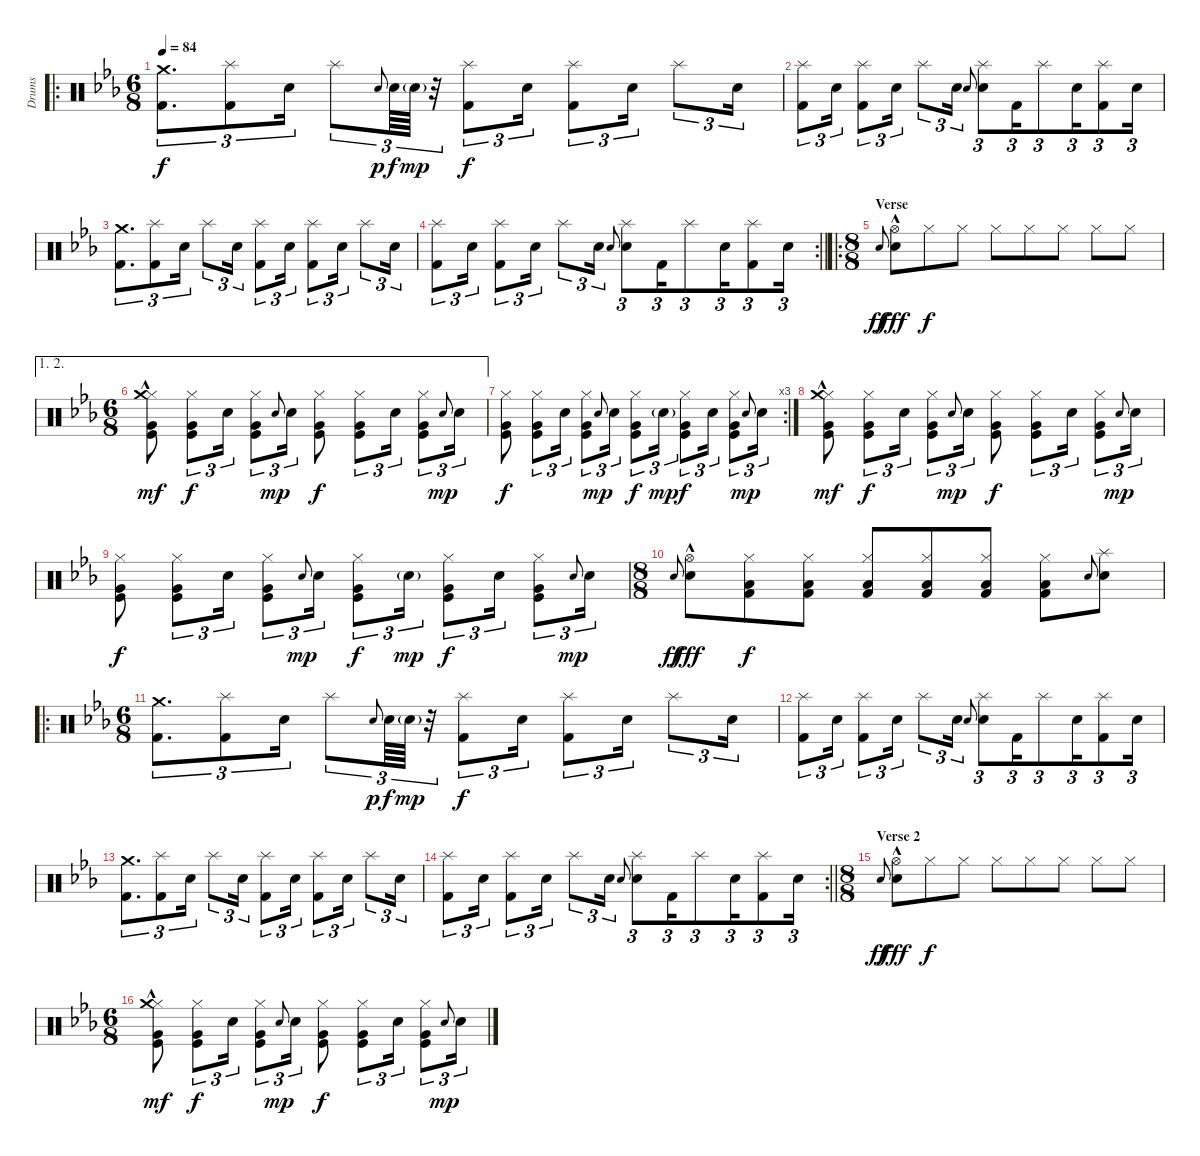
\track ("Drums" "Drums") {instrument percussion}
\staff {score}
\articulation defaults
\ro
\ts (6 8)
\tempo 84
\clef neutral
\ks cminor
("Crash medium (hit)" "Kick (hit) 2").8{d tu (3 2) dy f} ("Splash (hit)" "Kick (hit) 2").8{tu (3 2)} "Snare (hit) 2".16{tu (3 2)} "Splash (hit)".8{tu (3 2)} "Electric Snare (hit)".8{gr onbeat dy p} "Electric Snare (hit)".64{tu (3 2) dy f} "Electric Snare (hit)"{g}.64{tu (3 2) dy mp} r.32{tu (3 2)} ("Splash (hit)" "Kick (hit) 2").8{tu (3 2) dy f} "Snare (hit) 2".16{tu (3 2)} ("Splash (hit)" "Kick (hit) 2").8{tu (3 2)} "Snare (hit) 2".16{tu (3 2)} "Splash (hit)".8{tu (3 2)} "Snare (hit) 2".16{tu (3 2)} |
("Splash (hit)" "Kick (hit) 2").8{tu (3 2)} "Snare (hit) 2".16{tu (3 2)} ("Splash (hit)" "Kick (hit) 2").8{tu (3 2)} "Snare (hit) 2".16{tu (3 2)} "Splash (hit)".8{tu (3 2)} "Snare (hit) 2".16{tu (3 2)} "Snare (hit) 2"{h}.8{gr onbeat} ("Splash (hit)" "Snare (hit) 2").8{tu (3 2)} "Kick (hit) 2".16{tu (3 2)} "Splash (hit)".8{tu (3 2)} "Snare (hit) 2".16{tu (3 2)} ("Splash (hit)" "Kick (hit) 2").8{tu (3 2)} "Snare (hit) 2".16{tu (3 2)} |
("Crash medium (hit)" "Kick (hit) 2").8{d tu (3 2)} ("Splash (hit)" "Kick (hit) 2").8{tu (3 2)} "Snare (hit) 2".16{tu (3 2)} "Splash (hit)".8{tu (3 2)} "Snare (hit) 2".16{tu (3 2)} ("Splash (hit)" "Kick (hit) 2").8{tu (3 2)} "Snare (hit) 2".16{tu (3 2)} ("Splash (hit)" "Kick (hit) 2").8{tu (3 2)} "Snare (hit) 2".16{tu (3 2)} "Splash (hit)".8{tu (3 2)} "Snare (hit) 2".16{tu (3 2)} |
\rc 2
\barLineRight lightlight
("Splash (hit)" "Kick (hit) 2").8{tu (3 2)} "Snare (hit) 2".16{tu (3 2)} ("Splash (hit)" "Kick (hit) 2").8{tu (3 2)} "Snare (hit) 2".16{tu (3 2)} "Splash (hit)".8{tu (3 2)} "Snare (hit) 2".16{tu (3 2)} "Snare (hit) 2"{h}.8{gr onbeat} ("Splash (hit)" "Snare (hit) 2").8{tu (3 2)} "Kick (hit) 2".16{tu (3 2)} "Splash (hit)".8{tu (3 2)} "Snare (hit) 2".16{tu (3 2)} ("Splash (hit)" "Kick (hit) 2").8{tu (3 2)} "Snare (hit) 2".16{tu (3 2)} |
\ro
\ts (8 8)
\section ("" "Verse")
"Snare (hit) 2".8{gr onbeat dy ff} ("Hi-Hat (open)" "Snare (hit) 2"{hac}).8{dy fff} "Hi-Hat (closed)".8{dy f} "Hi-Hat (closed)".8 "Hi-Hat (closed)".8 "Hi-Hat (closed)".8 "Hi-Hat (closed)".8 "Hi-Hat (closed)".8 "Hi-Hat (closed)".8 |
\ae (1 2)
\ts (6 8)
("Hi-Hat (closed)"{hac} "Crash medium (hit)" "Very Low Tom (hit)" "Kick (hit)").8{dy mf} ("Hi-Hat (closed)" "Very Low Tom (hit)" "Kick (hit)").8{tu (3 2) dy f} "Electric Snare (hit)".16{tu (3 2)} ("Hi-Hat (closed)" "Very Low Tom (hit)" "Kick (hit)").8{tu (3 2)} "Electric Snare (hit)".8{gr onbeat dy mp} "Electric Snare (hit)".16{tu (3 2)} ("Hi-Hat (closed)" "Very Low Tom (hit)" "Kick (hit)").8{dy f} ("Hi-Hat (closed)" "Very Low Tom (hit)" "Kick (hit)").8{tu (3 2)} "Electric Snare (hit)".16{tu (3 2)} ("Hi-Hat (closed)" "Very Low Tom (hit)" "Kick (hit)").8{tu (3 2)} "Electric Snare (hit)".8{gr onbeat dy mp} "Electric Snare (hit)".16{tu (3 2)} |
\rc 3
("Hi-Hat (closed)" "Very Low Tom (hit)" "Kick (hit)").8{dy f} ("Hi-Hat (closed)" "Very Low Tom (hit)" "Kick (hit)").8{tu (3 2)} "Electric Snare (hit)".16{tu (3 2)} ("Hi-Hat (closed)" "Very Low Tom (hit)" "Kick (hit)").8{tu (3 2)} "Electric Snare (hit)".8{gr onbeat dy mp} "Electric Snare (hit)".16{tu (3 2)} ("Hi-Hat (closed)" "Very Low Tom (hit)" "Kick (hit)").8{tu (3 2) dy f} "Electric Snare (hit)"{g}.16{tu (3 2) dy mp} ("Hi-Hat (closed)" "Very Low Tom (hit)" "Kick (hit)").8{tu (3 2) dy f} "Electric Snare (hit)".16{tu (3 2)} ("Hi-Hat (closed)" "Very Low Tom (hit)" "Kick (hit)").8{tu (3 2)} "Electric Snare (hit)".8{gr onbeat dy mp} "Electric Snare (hit)".16{tu (3 2)} |
("Hi-Hat (closed)"{hac} "Crash medium (hit)" "Very Low Tom (hit)" "Kick (hit)").8{dy mf} ("Hi-Hat (closed)" "Very Low Tom (hit)" "Kick (hit)").8{tu (3 2) dy f} "Electric Snare (hit)".16{tu (3 2)} ("Hi-Hat (closed)" "Very Low Tom (hit)" "Kick (hit)").8{tu (3 2)} "Electric Snare (hit)".8{gr onbeat dy mp} "Electric Snare (hit)".16{tu (3 2)} ("Hi-Hat (closed)" "Very Low Tom (hit)" "Kick (hit)").8{dy f} ("Hi-Hat (closed)" "Very Low Tom (hit)" "Kick (hit)").8{tu (3 2)} "Electric Snare (hit)".16{tu (3 2)} ("Hi-Hat (closed)" "Very Low Tom (hit)" "Kick (hit)").8{tu (3 2)} "Electric Snare (hit)".8{gr onbeat dy mp} "Electric Snare (hit)".16{tu (3 2)} |
("Hi-Hat (closed)" "Very Low Tom (hit)" "Kick (hit)").8{dy f} ("Hi-Hat (closed)" "Very Low Tom (hit)" "Kick (hit)").8{tu (3 2)} "Electric Snare (hit)".16{tu (3 2)} ("Hi-Hat (closed)" "Very Low Tom (hit)" "Kick (hit)").8{tu (3 2)} "Electric Snare (hit)".8{gr onbeat dy mp} "Electric Snare (hit)".16{tu (3 2)} ("Hi-Hat (closed)" "Very Low Tom (hit)" "Kick (hit)").8{tu (3 2) dy f} "Electric Snare (hit)"{g}.16{tu (3 2) dy mp} ("Hi-Hat (closed)" "Very Low Tom (hit)" "Kick (hit)").8{tu (3 2) dy f} "Electric Snare (hit)".16{tu (3 2)} ("Hi-Hat (closed)" "Very Low Tom (hit)" "Kick (hit)").8{tu (3 2)} "Electric Snare (hit)".8{gr onbeat dy mp} "Electric Snare (hit)".16{tu (3 2)} |
\ts (8 8)
"Snare (hit) 2".8{gr onbeat dy ff} ("Hi-Hat (open)" "Snare (hit) 2"{hac}).8{dy fff} ("Hi-Hat (closed)" "Low Floor Tom (hit)" "Kick (hit) 2").8{dy f} ("Hi-Hat (closed)" "Low Floor Tom (hit)" "Kick (hit) 2").8 ("Hi-Hat (closed)" "Low Floor Tom (hit)" "Kick (hit) 2").8 ("Hi-Hat (closed)" "Low Floor Tom (hit)" "Kick (hit) 2").8 ("Hi-Hat (closed)" "Low Floor Tom (hit)" "Kick (hit) 2").8 ("Hi-Hat (closed)" "Low Floor Tom (hit)" "Kick (hit) 2").8 "Snare (hit) 2".8{gr onbeat} ("Splash (hit)" "Snare (hit) 2").8 |
\ro
\ts (6 8)
("Crash medium (hit)" "Kick (hit) 2").8{d tu (3 2)} ("Splash (hit)" "Kick (hit) 2").8{tu (3 2)} "Snare (hit) 2".16{tu (3 2)} "Splash (hit)".8{tu (3 2)} "Electric Snare (hit)".8{gr onbeat dy p} "Electric Snare (hit)".64{tu (3 2) dy f} "Electric Snare (hit)"{g}.64{tu (3 2) dy mp} r.32{tu (3 2)} ("Splash (hit)" "Kick (hit) 2").8{tu (3 2) dy f} "Snare (hit) 2".16{tu (3 2)} ("Splash (hit)" "Kick (hit) 2").8{tu (3 2)} "Snare (hit) 2".16{tu (3 2)} "Splash (hit)".8{tu (3 2)} "Snare (hit) 2".16{tu (3 2)} |
("Splash (hit)" "Kick (hit) 2").8{tu (3 2)} "Snare (hit) 2".16{tu (3 2)} ("Splash (hit)" "Kick (hit) 2").8{tu (3 2)} "Snare (hit) 2".16{tu (3 2)} "Splash (hit)".8{tu (3 2)} "Snare (hit) 2".16{tu (3 2)} "Snare (hit) 2"{h}.8{gr onbeat} ("Splash (hit)" "Snare (hit) 2").8{tu (3 2)} "Kick (hit) 2".16{tu (3 2)} "Splash (hit)".8{tu (3 2)} "Snare (hit) 2".16{tu (3 2)} ("Splash (hit)" "Kick (hit) 2").8{tu (3 2)} "Snare (hit) 2".16{tu (3 2)} |
("Crash medium (hit)" "Kick (hit) 2").8{d tu (3 2)} ("Splash (hit)" "Kick (hit) 2").8{tu (3 2)} "Snare (hit) 2".16{tu (3 2)} "Splash (hit)".8{tu (3 2)} "Snare (hit) 2".16{tu (3 2)} ("Splash (hit)" "Kick (hit) 2").8{tu (3 2)} "Snare (hit) 2".16{tu (3 2)} ("Splash (hit)" "Kick (hit) 2").8{tu (3 2)} "Snare (hit) 2".16{tu (3 2)} "Splash (hit)".8{tu (3 2)} "Snare (hit) 2".16{tu (3 2)} |
\rc 2
\barLineRight lightlight
("Splash (hit)" "Kick (hit) 2").8{tu (3 2)} "Snare (hit) 2".16{tu (3 2)} ("Splash (hit)" "Kick (hit) 2").8{tu (3 2)} "Snare (hit) 2".16{tu (3 2)} "Splash (hit)".8{tu (3 2)} "Snare (hit) 2".16{tu (3 2)} "Snare (hit) 2"{h}.8{gr onbeat} ("Splash (hit)" "Snare (hit) 2").8{tu (3 2)} "Kick (hit) 2".16{tu (3 2)} "Splash (hit)".8{tu (3 2)} "Snare (hit) 2".16{tu (3 2)} ("Splash (hit)" "Kick (hit) 2").8{tu (3 2)} "Snare (hit) 2".16{tu (3 2)} |
\ts (8 8)
\section ("" "Verse 2")
"Snare (hit) 2".8{gr onbeat dy ff} ("Hi-Hat (open)" "Snare (hit) 2"{hac}).8{dy fff} "Hi-Hat (closed)".8{dy f} "Hi-Hat (closed)".8 "Hi-Hat (closed)".8 "Hi-Hat (closed)".8 "Hi-Hat (closed)".8 "Hi-Hat (closed)".8 "Hi-Hat (closed)".8 |
\ts (6 8)
("Hi-Hat (closed)"{hac} "Crash medium (hit)" "Very Low Tom (hit)" "Kick (hit)").8{dy mf} ("Hi-Hat (closed)" "Very Low Tom (hit)" "Kick (hit)").8{tu (3 2) dy f} "Electric Snare (hit)".16{tu (3 2)} ("Hi-Hat (closed)" "Very Low Tom (hit)" "Kick (hit)").8{tu (3 2)} "Electric Snare (hit)".8{gr onbeat dy mp} "Electric Snare (hit)".16{tu (3 2)} ("Hi-Hat (closed)" "Very Low Tom (hit)" "Kick (hit)").8{dy f} ("Hi-Hat (closed)" "Very Low Tom (hit)" "Kick (hit)").8{tu (3 2)} "Electric Snare (hit)".16{tu (3 2)} ("Hi-Hat (closed)" "Very Low Tom (hit)" "Kick (hit)").8{tu (3 2)} "Electric Snare (hit)".8{gr onbeat dy mp} "Electric Snare (hit)".16{tu (3 2)}
